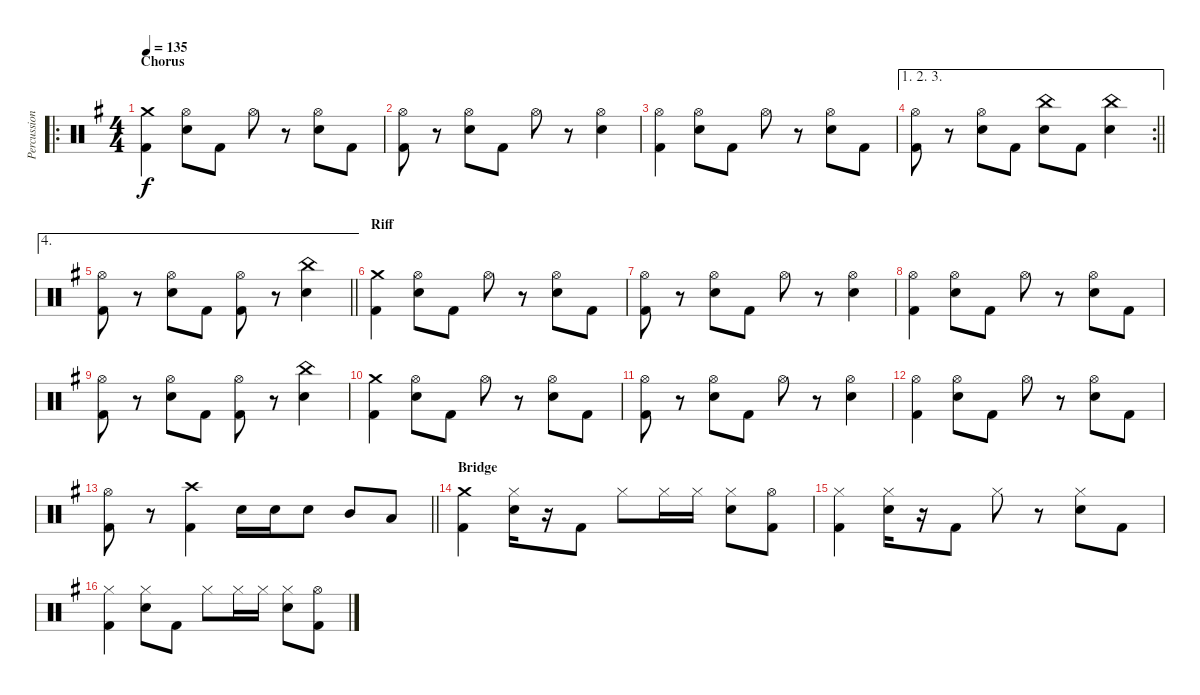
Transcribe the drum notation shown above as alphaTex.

\track ("Percussion" "Percussion") {instrument percussion}
\staff {score}
\articulation defaults
\ro
\ts (4 4)
\section ("" "Chorus")
\tempo 135
\clef neutral
\ks g
("Crash medium (hit)" "Kick (hit) 2").4{dy f} ("Hi-Hat (open)" "Electric Snare (hit)").8 "Kick (hit) 2".8 "Hi-Hat (open)".8 r.8 ("Hi-Hat (open)" "Electric Snare (hit)").8 "Kick (hit) 2".8 |
("Hi-Hat (open)" "Kick (hit) 2").8 r.8 ("Hi-Hat (open)" "Electric Snare (hit)").8 "Kick (hit) 2".8 "Hi-Hat (open)".8 r.8 ("Hi-Hat (open)" "Electric Snare (hit)").4 |
("Hi-Hat (open)" "Kick (hit) 2").4 ("Hi-Hat (open)" "Electric Snare (hit)").8 "Kick (hit) 2".8 "Hi-Hat (open)".8 r.8 ("Hi-Hat (open)" "Electric Snare (hit)").8 "Kick (hit) 2".8 |
\ae (1 2 3)
\rc 2
\barLineRight lightlight
("Hi-Hat (open)" "Kick (hit) 2").8 r.8 ("Hi-Hat (open)" "Electric Snare (hit)").8 "Kick (hit) 2".8 ("China (hit)" "Electric Snare (hit)").8 "Kick (hit) 2".8 ("China (hit)" "Electric Snare (hit)").4 |
\ae 4
\barLineRight lightlight
("Hi-Hat (open)" "Kick (hit) 2").8 r.8 ("Hi-Hat (open)" "Electric Snare (hit)").8 "Kick (hit) 2".8 ("Hi-Hat (open)" "Kick (hit) 2").8 r.8 ("China (hit)" "Electric Snare (hit)").4 |
\section ("" "Riff")
("Crash medium (hit)" "Kick (hit) 2").4 ("Hi-Hat (open)" "Electric Snare (hit)").8 "Kick (hit) 2".8 "Hi-Hat (open)".8 r.8 ("Hi-Hat (open)" "Electric Snare (hit)").8 "Kick (hit) 2".8 |
("Hi-Hat (open)" "Kick (hit) 2").8 r.8 ("Hi-Hat (open)" "Electric Snare (hit)").8 "Kick (hit) 2".8 "Hi-Hat (open)".8 r.8 ("Hi-Hat (open)" "Electric Snare (hit)").4 |
("Hi-Hat (open)" "Kick (hit) 2").4 ("Hi-Hat (open)" "Electric Snare (hit)").8 "Kick (hit) 2".8 "Hi-Hat (open)".8 r.8 ("Hi-Hat (open)" "Electric Snare (hit)").8 "Kick (hit) 2".8 |
("Hi-Hat (open)" "Kick (hit) 2").8 r.8 ("Hi-Hat (open)" "Electric Snare (hit)").8 "Kick (hit) 2".8 ("Hi-Hat (open)" "Kick (hit) 2").8 r.8 ("China (hit)" "Electric Snare (hit)").4 |
("Crash medium (hit)" "Kick (hit) 2").4 ("Hi-Hat (open)" "Electric Snare (hit)").8 "Kick (hit) 2".8 "Hi-Hat (open)".8 r.8 ("Hi-Hat (open)" "Electric Snare (hit)").8 "Kick (hit) 2".8 |
("Hi-Hat (open)" "Kick (hit) 2").8 r.8 ("Hi-Hat (open)" "Electric Snare (hit)").8 "Kick (hit) 2".8 "Hi-Hat (open)".8 r.8 ("Hi-Hat (open)" "Electric Snare (hit)").4 |
("Hi-Hat (open)" "Kick (hit) 2").4 ("Hi-Hat (open)" "Electric Snare (hit)").8 "Kick (hit) 2".8 "Hi-Hat (open)".8 r.8 ("Hi-Hat (open)" "Electric Snare (hit)").8 "Kick (hit) 2".8 |
\barLineRight lightlight
("Hi-Hat (open)" "Kick (hit) 2").8 r.8 ("Crash high (hit)" "Kick (hit) 2").4 "Electric Snare (hit)".16 "Electric Snare (hit)".16 "Electric Snare (hit)".8 "Mid Tom (hit)".8 "Low Tom (hit)".8 |
\section ("" "Bridge")
("Crash medium (hit)" "Kick (hit) 2").4 ("Hi-Hat (closed)" "Electric Snare (hit)").16 r.16 "Kick (hit) 2".8 "Hi-Hat (closed)".8 "Hi-Hat (closed)".16 "Hi-Hat (closed)".16 ("Hi-Hat (closed)" "Electric Snare (hit)").8 ("Hi-Hat (open)" "Kick (hit) 2").8 |
("Hi-Hat (closed)" "Kick (hit) 2").4 ("Hi-Hat (closed)" "Electric Snare (hit)").16 r.16 "Kick (hit) 2".8 "Hi-Hat (closed)".8 r.8 ("Hi-Hat (closed)" "Electric Snare (hit)").8 "Kick (hit) 2".8 |
("Hi-Hat (closed)" "Kick (hit) 2").4 ("Hi-Hat (closed)" "Electric Snare (hit)").8 "Kick (hit) 2".8 "Hi-Hat (closed)".8 "Hi-Hat (closed)".16 "Hi-Hat (closed)".16 ("Hi-Hat (closed)" "Electric Snare (hit)").8 ("Hi-Hat (open)" "Kick (hit) 2").8
